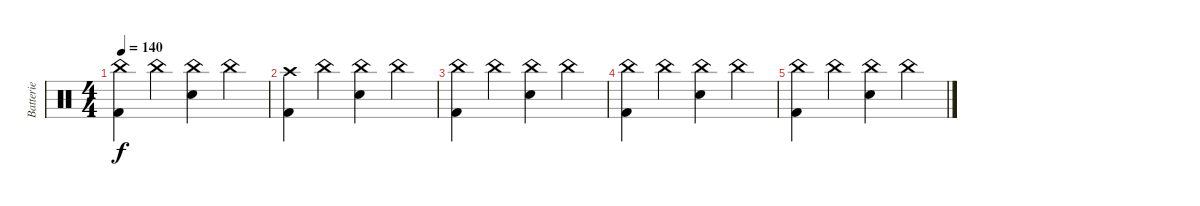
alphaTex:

\track ("Batterie" "Batterie") {instrument percussion}
\staff {score}
\articulation defaults
\ts (4 4)
\tempo 140
\clef neutral
\ks c
("China (hit)" "Kick (hit) 2").4{dy f} "China (hit)".4 ("China (hit)" "Electric Snare (hit)").4 "China (hit)".4 |
("Crash high (hit)" "Kick (hit) 2").4 "China (hit)".4 ("China (hit)" "Electric Snare (hit)").4 "China (hit)".4 |
("China (hit)" "Kick (hit) 2").4 "China (hit)".4 ("China (hit)" "Electric Snare (hit)").4 "China (hit)".4 |
("China (hit)" "Kick (hit) 2").4 "China (hit)".4 ("China (hit)" "Electric Snare (hit)").4 "China (hit)".4 |
("China (hit)" "Kick (hit) 2").4 "China (hit)".4 ("China (hit)" "Electric Snare (hit)").4 "China (hit)".4
